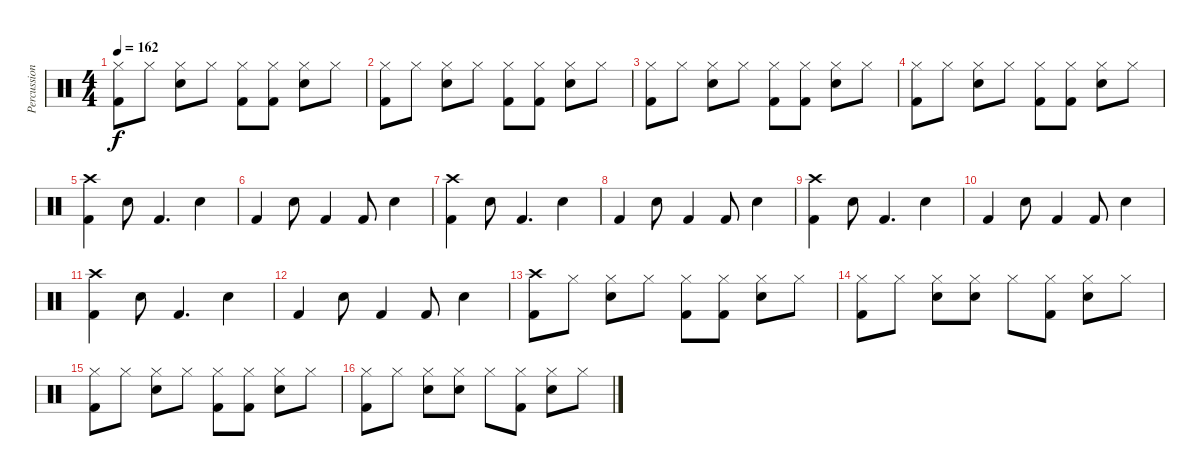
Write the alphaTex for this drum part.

\track ("Percussion" "Percussion") {instrument percussion}
\staff {score}
\articulation defaults
\ts (4 4)
\tempo 162
\clef neutral
\ks c
("Hi-Hat (closed)" "Kick (hit) 2").8{dy f} "Hi-Hat (closed)".8 ("Hi-Hat (closed)" "Electric Snare (hit)").8 "Hi-Hat (closed)".8 ("Hi-Hat (closed)" "Kick (hit) 2").8 ("Hi-Hat (closed)" "Kick (hit) 2").8 ("Hi-Hat (closed)" "Electric Snare (hit)").8 "Hi-Hat (closed)".8 |
("Hi-Hat (closed)" "Kick (hit) 2").8 "Hi-Hat (closed)".8 ("Hi-Hat (closed)" "Electric Snare (hit)").8 "Hi-Hat (closed)".8 ("Hi-Hat (closed)" "Kick (hit) 2").8 ("Hi-Hat (closed)" "Kick (hit) 2").8 ("Hi-Hat (closed)" "Electric Snare (hit)").8 "Hi-Hat (closed)".8 |
("Hi-Hat (closed)" "Kick (hit) 2").8 "Hi-Hat (closed)".8 ("Hi-Hat (closed)" "Electric Snare (hit)").8 "Hi-Hat (closed)".8 ("Hi-Hat (closed)" "Kick (hit) 2").8 ("Hi-Hat (closed)" "Kick (hit) 2").8 ("Hi-Hat (closed)" "Electric Snare (hit)").8 "Hi-Hat (closed)".8 |
("Hi-Hat (closed)" "Kick (hit) 2").8 "Hi-Hat (closed)".8 ("Hi-Hat (closed)" "Electric Snare (hit)").8 "Hi-Hat (closed)".8 ("Hi-Hat (closed)" "Kick (hit) 2").8 ("Hi-Hat (closed)" "Kick (hit) 2").8 ("Hi-Hat (closed)" "Electric Snare (hit)").8 "Hi-Hat (closed)".8 |
("Crash high (hit)" "Kick (hit) 2").4 "Electric Snare (hit)".8 "Kick (hit) 2".4{d} "Electric Snare (hit)".4 |
"Kick (hit) 2".4 "Electric Snare (hit)".8 "Kick (hit) 2".4 "Kick (hit) 2".8 "Electric Snare (hit)".4 |
("Crash high (hit)" "Kick (hit) 2").4 "Electric Snare (hit)".8 "Kick (hit) 2".4{d} "Electric Snare (hit)".4 |
"Kick (hit) 2".4 "Electric Snare (hit)".8 "Kick (hit) 2".4 "Kick (hit) 2".8 "Electric Snare (hit)".4 |
("Crash high (hit)" "Kick (hit) 2").4 "Electric Snare (hit)".8 "Kick (hit) 2".4{d} "Electric Snare (hit)".4 |
"Kick (hit) 2".4 "Electric Snare (hit)".8 "Kick (hit) 2".4 "Kick (hit) 2".8 "Electric Snare (hit)".4 |
("Crash high (hit)" "Kick (hit) 2").4 "Electric Snare (hit)".8 "Kick (hit) 2".4{d} "Electric Snare (hit)".4 |
"Kick (hit) 2".4 "Electric Snare (hit)".8 "Kick (hit) 2".4 "Kick (hit) 2".8 "Electric Snare (hit)".4 |
("Crash high (hit)" "Kick (hit) 2").8 "Hi-Hat (closed)".8 ("Hi-Hat (closed)" "Electric Snare (hit)").8 "Hi-Hat (closed)".8 ("Hi-Hat (closed)" "Kick (hit) 2").8 ("Hi-Hat (closed)" "Kick (hit) 2").8 ("Hi-Hat (closed)" "Electric Snare (hit)").8 "Hi-Hat (closed)".8 |
("Hi-Hat (closed)" "Kick (hit) 2").8 "Hi-Hat (closed)".8 ("Hi-Hat (closed)" "Electric Snare (hit)").8 ("Hi-Hat (closed)" "Electric Snare (hit)").8 "Hi-Hat (closed)".8 ("Hi-Hat (closed)" "Kick (hit) 2").8 ("Hi-Hat (closed)" "Electric Snare (hit)").8 "Hi-Hat (closed)".8 |
("Hi-Hat (closed)" "Kick (hit) 2").8 "Hi-Hat (closed)".8 ("Hi-Hat (closed)" "Electric Snare (hit)").8 "Hi-Hat (closed)".8 ("Hi-Hat (closed)" "Kick (hit) 2").8 ("Hi-Hat (closed)" "Kick (hit) 2").8 ("Hi-Hat (closed)" "Electric Snare (hit)").8 "Hi-Hat (closed)".8 |
("Hi-Hat (closed)" "Kick (hit) 2").8 "Hi-Hat (closed)".8 ("Hi-Hat (closed)" "Electric Snare (hit)").8 ("Hi-Hat (closed)" "Electric Snare (hit)").8 "Hi-Hat (closed)".8 ("Hi-Hat (closed)" "Kick (hit) 2").8 ("Hi-Hat (closed)" "Electric Snare (hit)").8 "Hi-Hat (closed)".8
